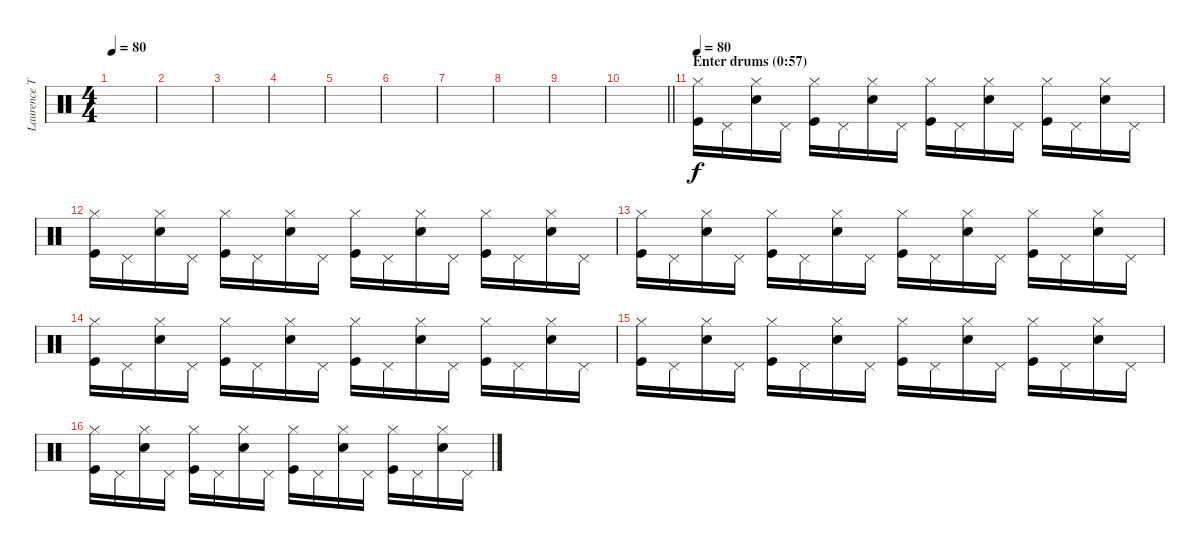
\track ("Laurence Tolhurst (drums)" "Laurence T") {instrument percussion}
\staff {score}
\articulation defaults
\ts (4 4)
\tempo 80
\clef neutral
\ks c
|
|
|
|
|
|
|
|
|
\barLineRight lightlight
|
\section ("" "Enter drums (0:57)")
\tempo 80
("Kick (hit)" "Hi-Hat (closed)").16 "Pedal Hi-Hat (hit)".16 ("Snare (hit) 2" "Hi-Hat (closed)").16 "Pedal Hi-Hat (hit)".16 ("Kick (hit)" "Hi-Hat (closed)").16 "Pedal Hi-Hat (hit)".16 ("Snare (hit) 2" "Hi-Hat (closed)").16 "Pedal Hi-Hat (hit)".16 ("Kick (hit)" "Hi-Hat (closed)").16 "Pedal Hi-Hat (hit)".16 ("Snare (hit) 2" "Hi-Hat (closed)").16 "Pedal Hi-Hat (hit)".16 ("Kick (hit)" "Hi-Hat (closed)").16 "Pedal Hi-Hat (hit)".16 ("Snare (hit) 2" "Hi-Hat (closed)").16 "Pedal Hi-Hat (hit)".16 |
("Kick (hit)" "Hi-Hat (closed)").16 "Pedal Hi-Hat (hit)".16 ("Snare (hit) 2" "Hi-Hat (closed)").16 "Pedal Hi-Hat (hit)".16 ("Kick (hit)" "Hi-Hat (closed)").16 "Pedal Hi-Hat (hit)".16 ("Snare (hit) 2" "Hi-Hat (closed)").16 "Pedal Hi-Hat (hit)".16 ("Kick (hit)" "Hi-Hat (closed)").16 "Pedal Hi-Hat (hit)".16 ("Snare (hit) 2" "Hi-Hat (closed)").16 "Pedal Hi-Hat (hit)".16 ("Kick (hit)" "Hi-Hat (closed)").16 "Pedal Hi-Hat (hit)".16 ("Snare (hit) 2" "Hi-Hat (closed)").16 "Pedal Hi-Hat (hit)".16 |
("Kick (hit)" "Hi-Hat (closed)").16 "Pedal Hi-Hat (hit)".16 ("Snare (hit) 2" "Hi-Hat (closed)").16 "Pedal Hi-Hat (hit)".16 ("Kick (hit)" "Hi-Hat (closed)").16 "Pedal Hi-Hat (hit)".16 ("Snare (hit) 2" "Hi-Hat (closed)").16 "Pedal Hi-Hat (hit)".16 ("Kick (hit)" "Hi-Hat (closed)").16 "Pedal Hi-Hat (hit)".16 ("Snare (hit) 2" "Hi-Hat (closed)").16 "Pedal Hi-Hat (hit)".16 ("Kick (hit)" "Hi-Hat (closed)").16 "Pedal Hi-Hat (hit)".16 ("Snare (hit) 2" "Hi-Hat (closed)").16 "Pedal Hi-Hat (hit)".16 |
("Kick (hit)" "Hi-Hat (closed)").16 "Pedal Hi-Hat (hit)".16 ("Snare (hit) 2" "Hi-Hat (closed)").16 "Pedal Hi-Hat (hit)".16 ("Kick (hit)" "Hi-Hat (closed)").16 "Pedal Hi-Hat (hit)".16 ("Snare (hit) 2" "Hi-Hat (closed)").16 "Pedal Hi-Hat (hit)".16 ("Kick (hit)" "Hi-Hat (closed)").16 "Pedal Hi-Hat (hit)".16 ("Snare (hit) 2" "Hi-Hat (closed)").16 "Pedal Hi-Hat (hit)".16 ("Kick (hit)" "Hi-Hat (closed)").16 "Pedal Hi-Hat (hit)".16 ("Snare (hit) 2" "Hi-Hat (closed)").16 "Pedal Hi-Hat (hit)".16 |
("Kick (hit)" "Hi-Hat (closed)").16 "Pedal Hi-Hat (hit)".16 ("Snare (hit) 2" "Hi-Hat (closed)").16 "Pedal Hi-Hat (hit)".16 ("Kick (hit)" "Hi-Hat (closed)").16 "Pedal Hi-Hat (hit)".16 ("Snare (hit) 2" "Hi-Hat (closed)").16 "Pedal Hi-Hat (hit)".16 ("Kick (hit)" "Hi-Hat (closed)").16 "Pedal Hi-Hat (hit)".16 ("Snare (hit) 2" "Hi-Hat (closed)").16 "Pedal Hi-Hat (hit)".16 ("Kick (hit)" "Hi-Hat (closed)").16 "Pedal Hi-Hat (hit)".16 ("Snare (hit) 2" "Hi-Hat (closed)").16 "Pedal Hi-Hat (hit)".16 |
("Kick (hit)" "Hi-Hat (closed)").16 "Pedal Hi-Hat (hit)".16 ("Snare (hit) 2" "Hi-Hat (closed)").16 "Pedal Hi-Hat (hit)".16 ("Kick (hit)" "Hi-Hat (closed)").16 "Pedal Hi-Hat (hit)".16 ("Snare (hit) 2" "Hi-Hat (closed)").16 "Pedal Hi-Hat (hit)".16 ("Kick (hit)" "Hi-Hat (closed)").16 "Pedal Hi-Hat (hit)".16 ("Snare (hit) 2" "Hi-Hat (closed)").16 "Pedal Hi-Hat (hit)".16 ("Kick (hit)" "Hi-Hat (closed)").16 "Pedal Hi-Hat (hit)".16 ("Snare (hit) 2" "Hi-Hat (closed)").16 "Pedal Hi-Hat (hit)".16
